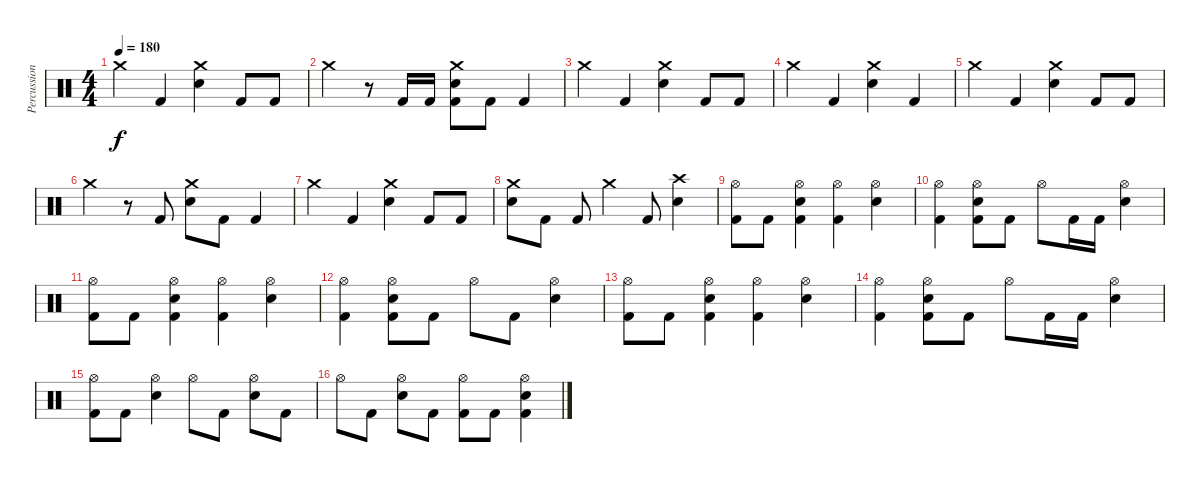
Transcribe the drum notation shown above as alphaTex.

\track ("Percussion" "Percussion") {instrument percussion}
\staff {score}
\articulation defaults
\ts (4 4)
\tempo 180
\clef neutral
\ks c "Crash medium (hit)".4{dy f} "Kick (hit) 2".4
("Crash medium (hit)" "Electric Snare (hit)").4 "Kick (hit) 2".8 "Kick (hit) 2".8 |
"Crash medium (hit)".4 r.8 "Kick (hit) 2".16 "Kick (hit) 2".16 ("Crash medium (hit)" "Electric Snare (hit)" "Kick (hit) 2").8 "Kick (hit) 2".8 "Kick (hit) 2".4 |
"Crash medium (hit)".4 "Kick (hit) 2".4 ("Crash medium (hit)" "Electric Snare (hit)").4 "Kick (hit) 2".8 "Kick (hit) 2".8 |
"Crash medium (hit)".4 "Kick (hit) 2".4 ("Crash medium (hit)" "Electric Snare (hit)").4 "Kick (hit) 2".4 |
"Crash medium (hit)".4 "Kick (hit) 2".4 ("Crash medium (hit)" "Electric Snare (hit)").4 "Kick (hit) 2".8 "Kick (hit) 2".8 |
"Crash medium (hit)".4 r.8 "Kick (hit) 2".8 ("Crash medium (hit)" "Electric Snare (hit)").8 "Kick (hit) 2".8 "Kick (hit) 2".4 |
"Crash medium (hit)".4 "Kick (hit) 2".4 ("Crash medium (hit)" "Electric Snare (hit)").4 "Kick (hit) 2".8 "Kick (hit) 2".8 |
("Crash medium (hit)" "Electric Snare (hit)").8 "Kick (hit) 2".8 "Kick (hit) 2".8 "Crash medium (hit)".4 "Kick (hit) 2".8 ("Crash high (hit)" "Electric Snare (hit)").4 |
("Hi-Hat (open)" "Kick (hit) 2").8 "Kick (hit) 2".8 ("Hi-Hat (open)" "Electric Snare (hit)" "Kick (hit) 2").4 ("Hi-Hat (open)" "Kick (hit) 2").4 ("Hi-Hat (open)" "Electric Snare (hit)").4 |
("Hi-Hat (open)" "Kick (hit) 2").4 ("Hi-Hat (open)" "Electric Snare (hit)" "Kick (hit) 2").8 "Kick (hit) 2".8 "Hi-Hat (open)".8 "Kick (hit) 2".16 "Kick (hit) 2".16 ("Hi-Hat (open)" "Electric Snare (hit)").4 |
("Hi-Hat (open)" "Kick (hit) 2").8 "Kick (hit) 2".8 ("Hi-Hat (open)" "Electric Snare (hit)" "Kick (hit) 2").4 ("Hi-Hat (open)" "Kick (hit) 2").4 ("Hi-Hat (open)" "Electric Snare (hit)").4 |
("Hi-Hat (open)" "Kick (hit) 2").4 ("Hi-Hat (open)" "Electric Snare (hit)" "Kick (hit) 2").8 "Kick (hit) 2".8 "Hi-Hat (open)".8 "Kick (hit) 2".8 ("Hi-Hat (open)" "Electric Snare (hit)").4 |
("Hi-Hat (open)" "Kick (hit) 2").8 "Kick (hit) 2".8 ("Hi-Hat (open)" "Electric Snare (hit)" "Kick (hit) 2").4 ("Hi-Hat (open)" "Kick (hit) 2").4 ("Hi-Hat (open)" "Electric Snare (hit)").4 |
("Hi-Hat (open)" "Kick (hit) 2").4 ("Hi-Hat (open)" "Electric Snare (hit)" "Kick (hit) 2").8 "Kick (hit) 2".8 "Hi-Hat (open)".8 "Kick (hit) 2".16 "Kick (hit) 2".16 ("Hi-Hat (open)" "Electric Snare (hit)").4 |
("Hi-Hat (open)" "Kick (hit) 2").8 "Kick (hit) 2".8 ("Hi-Hat (open)" "Electric Snare (hit)").4 "Hi-Hat (open)".8 "Kick (hit) 2".8 ("Hi-Hat (open)" "Electric Snare (hit)").8 "Kick (hit) 2".8 |
"Hi-Hat (open)".8 "Kick (hit) 2".8 ("Hi-Hat (open)" "Electric Snare (hit)").8 "Kick (hit) 2".8 ("Hi-Hat (open)" "Kick (hit) 2").8 "Kick (hit) 2".8 ("Hi-Hat (open)" "Electric Snare (hit)" "Kick (hit) 2").4
